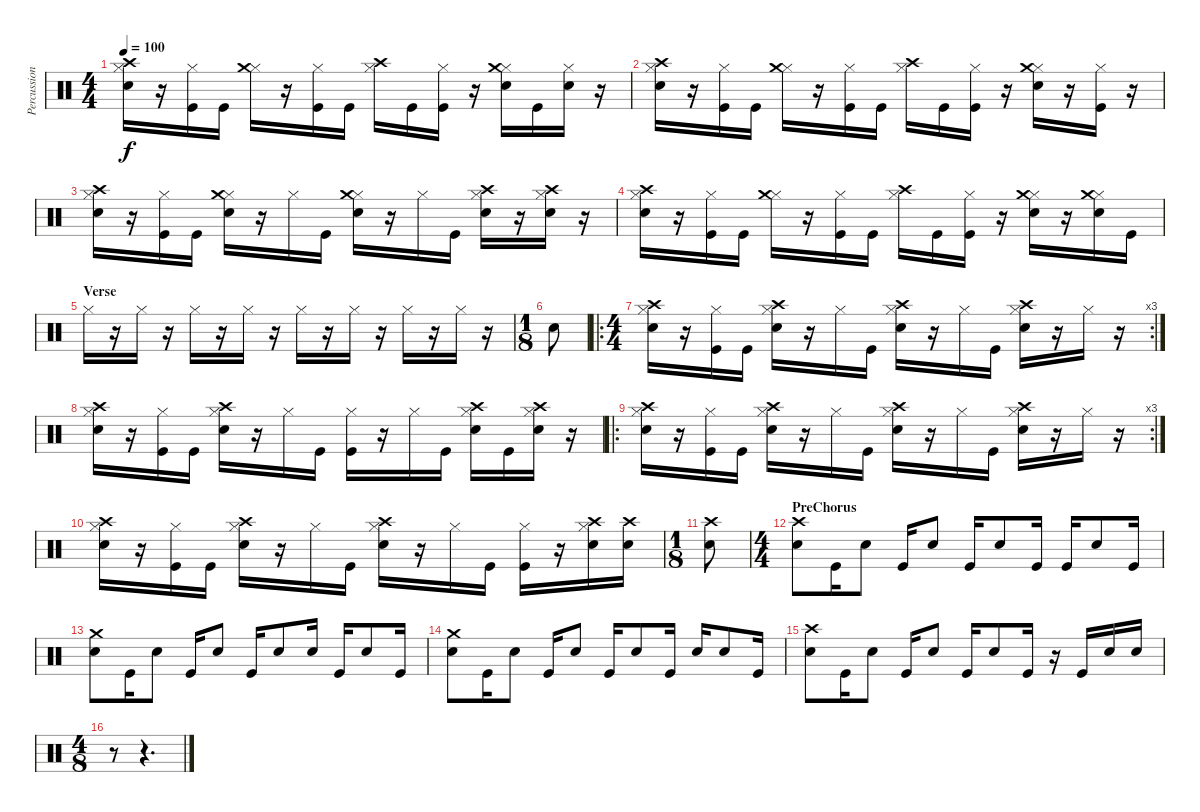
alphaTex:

\track ("Percussion" "Percussion") {instrument percussion}
\staff {score}
\articulation defaults
\ts (4 4)
\tempo 100
\clef neutral
\ks c
("Hi-Hat (closed)" "Crash high (hit)" "Electric Snare (hit)").16{dy f} r.16 ("Hi-Hat (closed)" "Kick (hit)").16 "Kick (hit)".16 ("Hi-Hat (closed)" "Crash medium (hit)").16 r.16 ("Hi-Hat (closed)" "Kick (hit)").16 "Kick (hit)".16 ("Hi-Hat (closed)" "Crash high (hit)").16 "Kick (hit)".16 ("Hi-Hat (closed)" "Kick (hit)").16 r.16 ("Hi-Hat (closed)" "Crash medium (hit)" "Electric Snare (hit)").16 "Kick (hit)".16 ("Hi-Hat (closed)" "Electric Snare (hit)").16 r.16 |
("Hi-Hat (closed)" "Crash high (hit)" "Electric Snare (hit)").16 r.16 ("Hi-Hat (closed)" "Kick (hit)").16 "Kick (hit)".16 ("Hi-Hat (closed)" "Crash medium (hit)").16 r.16 ("Hi-Hat (closed)" "Kick (hit)").16 "Kick (hit)".16 ("Hi-Hat (closed)" "Crash high (hit)").16 "Kick (hit)".16 ("Hi-Hat (closed)" "Kick (hit)").16 r.16 ("Hi-Hat (closed)" "Crash medium (hit)" "Electric Snare (hit)").16 r.16 ("Hi-Hat (closed)" "Kick (hit)").16 r.16 |
("Hi-Hat (closed)" "Crash high (hit)" "Electric Snare (hit)").16 r.16 ("Hi-Hat (closed)" "Kick (hit)").16 "Kick (hit)".16 ("Hi-Hat (closed)" "Crash medium (hit)" "Electric Snare (hit)").16 r.16 "Hi-Hat (closed)".16 "Kick (hit)".16 ("Hi-Hat (closed)" "Crash medium (hit)" "Electric Snare (hit)").16 r.16 "Hi-Hat (closed)".16 "Kick (hit)".16 ("Hi-Hat (closed)" "Crash high (hit)" "Electric Snare (hit)").16 r.16 ("Hi-Hat (closed)" "Crash high (hit)" "Electric Snare (hit)").16 r.16 |
("Hi-Hat (closed)" "Crash high (hit)" "Electric Snare (hit)").16 r.16 ("Hi-Hat (closed)" "Kick (hit)").16 "Kick (hit)".16 ("Hi-Hat (closed)" "Crash medium (hit)").16 r.16 ("Hi-Hat (closed)" "Kick (hit)").16 "Kick (hit)".16 ("Hi-Hat (closed)" "Crash high (hit)").16 "Kick (hit)".16 ("Hi-Hat (closed)" "Kick (hit)").16 r.16 ("Hi-Hat (closed)" "Crash medium (hit)" "Electric Snare (hit)").16 r.16 ("Hi-Hat (closed)" "Crash medium (hit)" "Electric Snare (hit)").16 "Kick (hit)".16 |
\section ("" "Verse")
"Hi-Hat (closed)".16 r.16 "Hi-Hat (closed)".16 r.16 "Hi-Hat (closed)".16 r.16 "Hi-Hat (closed)".16 r.16 "Hi-Hat (closed)".16 r.16 "Hi-Hat (closed)".16 r.16 "Hi-Hat (closed)".16 r.16 "Hi-Hat (closed)".16 r.16 |
\ts (1 8)
"Electric Snare (hit)".8 |
\ro
\rc 3
\ts (4 4)
("Hi-Hat (closed)" "Crash high (hit)" "Electric Snare (hit)").16 r.16 ("Hi-Hat (closed)" "Kick (hit)").16 "Kick (hit)".16 ("Hi-Hat (closed)" "Crash high (hit)" "Electric Snare (hit)").16 r.16 "Hi-Hat (closed)".16 "Kick (hit)".16 ("Hi-Hat (closed)" "Crash high (hit)" "Electric Snare (hit)").16 r.16 "Hi-Hat (closed)".16 "Kick (hit)".16 ("Hi-Hat (closed)" "Crash high (hit)" "Electric Snare (hit)").16 r.16 "Hi-Hat (closed)".16 r.16 |
("Hi-Hat (closed)" "Crash high (hit)" "Electric Snare (hit)").16 r.16 ("Hi-Hat (closed)" "Kick (hit)").16 "Kick (hit)".16 ("Hi-Hat (closed)" "Crash high (hit)" "Electric Snare (hit)").16 r.16 "Hi-Hat (closed)".16 "Kick (hit)".16 ("Hi-Hat (closed)" "Kick (hit)").16 r.16 "Hi-Hat (closed)".16 "Kick (hit)".16 ("Hi-Hat (closed)" "Crash high (hit)" "Electric Snare (hit)").16 "Kick (hit)".16 ("Hi-Hat (closed)" "Crash high (hit)" "Electric Snare (hit)").16 r.16 |
\ro
\rc 3
("Hi-Hat (closed)" "Crash high (hit)" "Electric Snare (hit)").16 r.16 ("Hi-Hat (closed)" "Kick (hit)").16 "Kick (hit)".16 ("Hi-Hat (closed)" "Crash high (hit)" "Electric Snare (hit)").16 r.16 "Hi-Hat (closed)".16 "Kick (hit)".16 ("Hi-Hat (closed)" "Crash high (hit)" "Electric Snare (hit)").16 r.16 "Hi-Hat (closed)".16 "Kick (hit)".16 ("Hi-Hat (closed)" "Crash high (hit)" "Electric Snare (hit)").16 r.16 "Hi-Hat (closed)".16 r.16 |
("Hi-Hat (closed)" "Crash high (hit)" "Electric Snare (hit)").16 r.16 ("Hi-Hat (closed)" "Kick (hit)").16 "Kick (hit)".16 ("Hi-Hat (closed)" "Crash high (hit)" "Electric Snare (hit)").16 r.16 "Hi-Hat (closed)".16 "Kick (hit)".16 ("Hi-Hat (closed)" "Crash high (hit)" "Electric Snare (hit)").16 r.16 "Hi-Hat (closed)".16 "Kick (hit)".16 ("Hi-Hat (closed)" "Kick (hit)").16 r.16 ("Hi-Hat (closed)" "Crash high (hit)" "Electric Snare (hit)").16 ("Crash high (hit)" "Electric Snare (hit)").16 |
\ts (1 8)
("Crash high (hit)" "Electric Snare (hit)").8 |
\ts (4 4)
\section ("" "PreChorus")
("Crash high (hit)" "Electric Snare (hit)").8 "Kick (hit)".16 "Electric Snare (hit)".8 "Kick (hit)".16 "Electric Snare (hit)".8 "Kick (hit)".16 "Electric Snare (hit)".8 "Kick (hit)".16 "Kick (hit)".16 "Electric Snare (hit)".8 "Kick (hit)".16 |
("Crash medium (hit)" "Electric Snare (hit)").8 "Kick (hit)".16 "Electric Snare (hit)".8 "Kick (hit)".16 "Electric Snare (hit)".8 "Kick (hit)".16 "Electric Snare (hit)".8 "Electric Snare (hit)".16 "Kick (hit)".16 "Electric Snare (hit)".8 "Kick (hit)".16 |
("Crash medium (hit)" "Electric Snare (hit)").8 "Kick (hit)".16 "Electric Snare (hit)".8 "Kick (hit)".16 "Electric Snare (hit)".8 "Kick (hit)".16 "Electric Snare (hit)".8 "Kick (hit)".16 "Electric Snare (hit)".16 "Electric Snare (hit)".8 "Kick (hit)".16 |
("Crash high (hit)" "Electric Snare (hit)").8 "Kick (hit)".16 "Electric Snare (hit)".8 "Kick (hit)".16 "Electric Snare (hit)".8 "Kick (hit)".16 "Electric Snare (hit)".8 "Kick (hit)".16 r.16 "Kick (hit)".16 "Electric Snare (hit)".16 "Electric Snare (hit)".16 |
\ts (4 8)
r.8 r.4{d}
